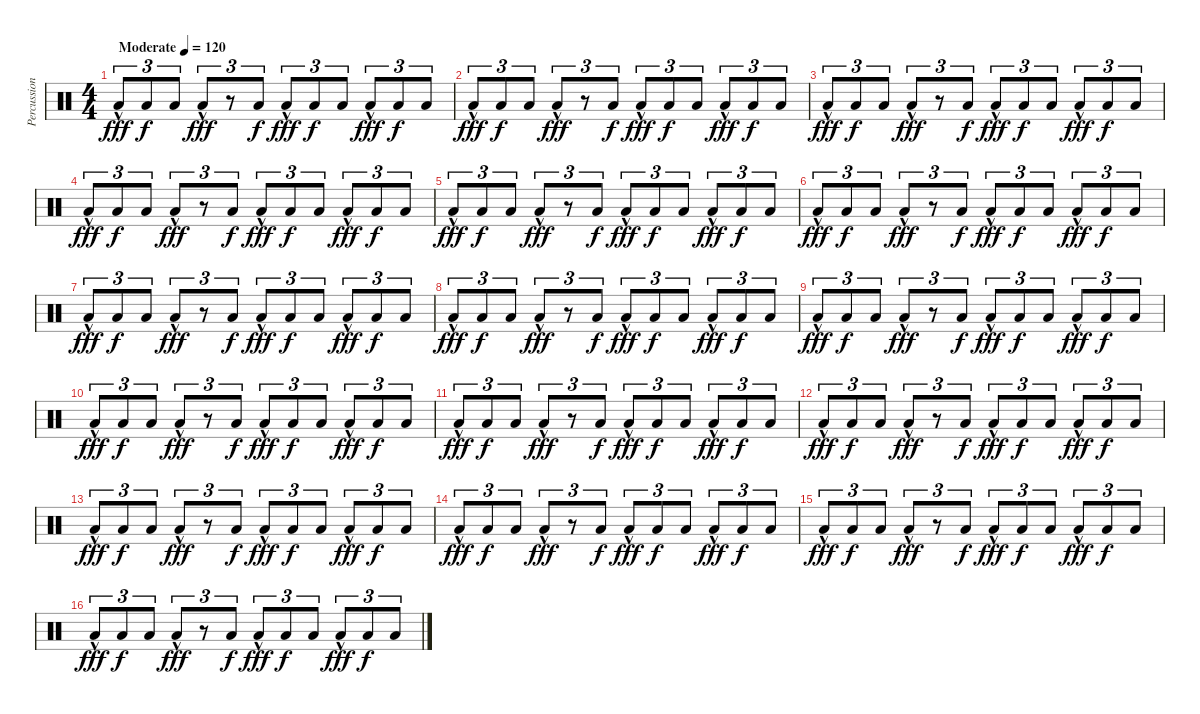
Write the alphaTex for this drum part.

\track ("Percussion" "Percussion") {instrument percussion}
\staff {score}
\articulation defaults
\ts (4 4)
\tempo (120 "Moderate")
\clef neutral
\ks c "Low Floor Tom (hit)"{hac}.8{tu (3 2) dy fff} "Low Floor Tom (hit)".8{tu (3 2) dy f} "Low Floor Tom (hit)".8{tu (3 2)} "Low Floor Tom (hit)"{hac}.8{tu (3 2) dy fff}
r.8{tu (3 2)} "Low Floor Tom (hit)".8{tu (3 2) dy f} "Low Floor Tom (hit)"{hac}.8{tu (3 2) dy fff} "Low Floor Tom (hit)".8{tu (3 2) dy f} "Low Floor Tom (hit)".8{tu (3 2)} "Low Floor Tom (hit)"{hac}.8{tu (3 2) dy fff} "Low Floor Tom (hit)".8{tu (3 2) dy f} "Low Floor Tom (hit)".8{tu (3 2)} |
"Low Floor Tom (hit)"{hac}.8{tu (3 2) dy fff} "Low Floor Tom (hit)".8{tu (3 2) dy f} "Low Floor Tom (hit)".8{tu (3 2)} "Low Floor Tom (hit)"{hac}.8{tu (3 2) dy fff} r.8{tu (3 2)} "Low Floor Tom (hit)".8{tu (3 2) dy f} "Low Floor Tom (hit)"{hac}.8{tu (3 2) dy fff} "Low Floor Tom (hit)".8{tu (3 2) dy f} "Low Floor Tom (hit)".8{tu (3 2)} "Low Floor Tom (hit)"{hac}.8{tu (3 2) dy fff} "Low Floor Tom (hit)".8{tu (3 2) dy f} "Low Floor Tom (hit)".8{tu (3 2)} |
"Low Floor Tom (hit)"{hac}.8{tu (3 2) dy fff} "Low Floor Tom (hit)".8{tu (3 2) dy f} "Low Floor Tom (hit)".8{tu (3 2)} "Low Floor Tom (hit)"{hac}.8{tu (3 2) dy fff} r.8{tu (3 2)} "Low Floor Tom (hit)".8{tu (3 2) dy f} "Low Floor Tom (hit)"{hac}.8{tu (3 2) dy fff} "Low Floor Tom (hit)".8{tu (3 2) dy f} "Low Floor Tom (hit)".8{tu (3 2)} "Low Floor Tom (hit)"{hac}.8{tu (3 2) dy fff} "Low Floor Tom (hit)".8{tu (3 2) dy f} "Low Floor Tom (hit)".8{tu (3 2)} |
"Low Floor Tom (hit)"{hac}.8{tu (3 2) dy fff} "Low Floor Tom (hit)".8{tu (3 2) dy f} "Low Floor Tom (hit)".8{tu (3 2)} "Low Floor Tom (hit)"{hac}.8{tu (3 2) dy fff} r.8{tu (3 2)} "Low Floor Tom (hit)".8{tu (3 2) dy f} "Low Floor Tom (hit)"{hac}.8{tu (3 2) dy fff} "Low Floor Tom (hit)".8{tu (3 2) dy f} "Low Floor Tom (hit)".8{tu (3 2)} "Low Floor Tom (hit)"{hac}.8{tu (3 2) dy fff} "Low Floor Tom (hit)".8{tu (3 2) dy f} "Low Floor Tom (hit)".8{tu (3 2)} |
"Low Floor Tom (hit)"{hac}.8{tu (3 2) dy fff} "Low Floor Tom (hit)".8{tu (3 2) dy f} "Low Floor Tom (hit)".8{tu (3 2)} "Low Floor Tom (hit)"{hac}.8{tu (3 2) dy fff} r.8{tu (3 2)} "Low Floor Tom (hit)".8{tu (3 2) dy f} "Low Floor Tom (hit)"{hac}.8{tu (3 2) dy fff} "Low Floor Tom (hit)".8{tu (3 2) dy f} "Low Floor Tom (hit)".8{tu (3 2)} "Low Floor Tom (hit)"{hac}.8{tu (3 2) dy fff} "Low Floor Tom (hit)".8{tu (3 2) dy f} "Low Floor Tom (hit)".8{tu (3 2)} |
"Low Floor Tom (hit)"{hac}.8{tu (3 2) dy fff} "Low Floor Tom (hit)".8{tu (3 2) dy f} "Low Floor Tom (hit)".8{tu (3 2)} "Low Floor Tom (hit)"{hac}.8{tu (3 2) dy fff} r.8{tu (3 2)} "Low Floor Tom (hit)".8{tu (3 2) dy f} "Low Floor Tom (hit)"{hac}.8{tu (3 2) dy fff} "Low Floor Tom (hit)".8{tu (3 2) dy f} "Low Floor Tom (hit)".8{tu (3 2)} "Low Floor Tom (hit)"{hac}.8{tu (3 2) dy fff} "Low Floor Tom (hit)".8{tu (3 2) dy f} "Low Floor Tom (hit)".8{tu (3 2)} |
"Low Floor Tom (hit)"{hac}.8{tu (3 2) dy fff} "Low Floor Tom (hit)".8{tu (3 2) dy f} "Low Floor Tom (hit)".8{tu (3 2)} "Low Floor Tom (hit)"{hac}.8{tu (3 2) dy fff} r.8{tu (3 2)} "Low Floor Tom (hit)".8{tu (3 2) dy f} "Low Floor Tom (hit)"{hac}.8{tu (3 2) dy fff} "Low Floor Tom (hit)".8{tu (3 2) dy f} "Low Floor Tom (hit)".8{tu (3 2)} "Low Floor Tom (hit)"{hac}.8{tu (3 2) dy fff} "Low Floor Tom (hit)".8{tu (3 2) dy f} "Low Floor Tom (hit)".8{tu (3 2)} |
"Low Floor Tom (hit)"{hac}.8{tu (3 2) dy fff} "Low Floor Tom (hit)".8{tu (3 2) dy f} "Low Floor Tom (hit)".8{tu (3 2)} "Low Floor Tom (hit)"{hac}.8{tu (3 2) dy fff} r.8{tu (3 2)} "Low Floor Tom (hit)".8{tu (3 2) dy f} "Low Floor Tom (hit)"{hac}.8{tu (3 2) dy fff} "Low Floor Tom (hit)".8{tu (3 2) dy f} "Low Floor Tom (hit)".8{tu (3 2)} "Low Floor Tom (hit)"{hac}.8{tu (3 2) dy fff} "Low Floor Tom (hit)".8{tu (3 2) dy f} "Low Floor Tom (hit)".8{tu (3 2)} |
"Low Floor Tom (hit)"{hac}.8{tu (3 2) dy fff} "Low Floor Tom (hit)".8{tu (3 2) dy f} "Low Floor Tom (hit)".8{tu (3 2)} "Low Floor Tom (hit)"{hac}.8{tu (3 2) dy fff} r.8{tu (3 2)} "Low Floor Tom (hit)".8{tu (3 2) dy f} "Low Floor Tom (hit)"{hac}.8{tu (3 2) dy fff} "Low Floor Tom (hit)".8{tu (3 2) dy f} "Low Floor Tom (hit)".8{tu (3 2)} "Low Floor Tom (hit)"{hac}.8{tu (3 2) dy fff} "Low Floor Tom (hit)".8{tu (3 2) dy f} "Low Floor Tom (hit)".8{tu (3 2)} |
"Low Floor Tom (hit)"{hac}.8{tu (3 2) dy fff} "Low Floor Tom (hit)".8{tu (3 2) dy f} "Low Floor Tom (hit)".8{tu (3 2)} "Low Floor Tom (hit)"{hac}.8{tu (3 2) dy fff} r.8{tu (3 2)} "Low Floor Tom (hit)".8{tu (3 2) dy f} "Low Floor Tom (hit)"{hac}.8{tu (3 2) dy fff} "Low Floor Tom (hit)".8{tu (3 2) dy f} "Low Floor Tom (hit)".8{tu (3 2)} "Low Floor Tom (hit)"{hac}.8{tu (3 2) dy fff} "Low Floor Tom (hit)".8{tu (3 2) dy f} "Low Floor Tom (hit)".8{tu (3 2)} |
"Low Floor Tom (hit)"{hac}.8{tu (3 2) dy fff} "Low Floor Tom (hit)".8{tu (3 2) dy f} "Low Floor Tom (hit)".8{tu (3 2)} "Low Floor Tom (hit)"{hac}.8{tu (3 2) dy fff} r.8{tu (3 2)} "Low Floor Tom (hit)".8{tu (3 2) dy f} "Low Floor Tom (hit)"{hac}.8{tu (3 2) dy fff} "Low Floor Tom (hit)".8{tu (3 2) dy f} "Low Floor Tom (hit)".8{tu (3 2)} "Low Floor Tom (hit)"{hac}.8{tu (3 2) dy fff} "Low Floor Tom (hit)".8{tu (3 2) dy f} "Low Floor Tom (hit)".8{tu (3 2)} |
"Low Floor Tom (hit)"{hac}.8{tu (3 2) dy fff} "Low Floor Tom (hit)".8{tu (3 2) dy f} "Low Floor Tom (hit)".8{tu (3 2)} "Low Floor Tom (hit)"{hac}.8{tu (3 2) dy fff} r.8{tu (3 2)} "Low Floor Tom (hit)".8{tu (3 2) dy f} "Low Floor Tom (hit)"{hac}.8{tu (3 2) dy fff} "Low Floor Tom (hit)".8{tu (3 2) dy f} "Low Floor Tom (hit)".8{tu (3 2)} "Low Floor Tom (hit)"{hac}.8{tu (3 2) dy fff} "Low Floor Tom (hit)".8{tu (3 2) dy f} "Low Floor Tom (hit)".8{tu (3 2)} |
"Low Floor Tom (hit)"{hac}.8{tu (3 2) dy fff} "Low Floor Tom (hit)".8{tu (3 2) dy f} "Low Floor Tom (hit)".8{tu (3 2)} "Low Floor Tom (hit)"{hac}.8{tu (3 2) dy fff} r.8{tu (3 2)} "Low Floor Tom (hit)".8{tu (3 2) dy f} "Low Floor Tom (hit)"{hac}.8{tu (3 2) dy fff} "Low Floor Tom (hit)".8{tu (3 2) dy f} "Low Floor Tom (hit)".8{tu (3 2)} "Low Floor Tom (hit)"{hac}.8{tu (3 2) dy fff} "Low Floor Tom (hit)".8{tu (3 2) dy f} "Low Floor Tom (hit)".8{tu (3 2)} |
"Low Floor Tom (hit)"{hac}.8{tu (3 2) dy fff} "Low Floor Tom (hit)".8{tu (3 2) dy f} "Low Floor Tom (hit)".8{tu (3 2)} "Low Floor Tom (hit)"{hac}.8{tu (3 2) dy fff} r.8{tu (3 2)} "Low Floor Tom (hit)".8{tu (3 2) dy f} "Low Floor Tom (hit)"{hac}.8{tu (3 2) dy fff} "Low Floor Tom (hit)".8{tu (3 2) dy f} "Low Floor Tom (hit)".8{tu (3 2)} "Low Floor Tom (hit)"{hac}.8{tu (3 2) dy fff} "Low Floor Tom (hit)".8{tu (3 2) dy f} "Low Floor Tom (hit)".8{tu (3 2)} |
"Low Floor Tom (hit)"{hac}.8{tu (3 2) dy fff} "Low Floor Tom (hit)".8{tu (3 2) dy f} "Low Floor Tom (hit)".8{tu (3 2)} "Low Floor Tom (hit)"{hac}.8{tu (3 2) dy fff} r.8{tu (3 2)} "Low Floor Tom (hit)".8{tu (3 2) dy f} "Low Floor Tom (hit)"{hac}.8{tu (3 2) dy fff} "Low Floor Tom (hit)".8{tu (3 2) dy f} "Low Floor Tom (hit)".8{tu (3 2)} "Low Floor Tom (hit)"{hac}.8{tu (3 2) dy fff} "Low Floor Tom (hit)".8{tu (3 2) dy f} "Low Floor Tom (hit)".8{tu (3 2)} |
"Low Floor Tom (hit)"{hac}.8{tu (3 2) dy fff} "Low Floor Tom (hit)".8{tu (3 2) dy f} "Low Floor Tom (hit)".8{tu (3 2)} "Low Floor Tom (hit)"{hac}.8{tu (3 2) dy fff} r.8{tu (3 2)} "Low Floor Tom (hit)".8{tu (3 2) dy f} "Low Floor Tom (hit)"{hac}.8{tu (3 2) dy fff} "Low Floor Tom (hit)".8{tu (3 2) dy f} "Low Floor Tom (hit)".8{tu (3 2)} "Low Floor Tom (hit)"{hac}.8{tu (3 2) dy fff} "Low Floor Tom (hit)".8{tu (3 2) dy f} "Low Floor Tom (hit)".8{tu (3 2)}
